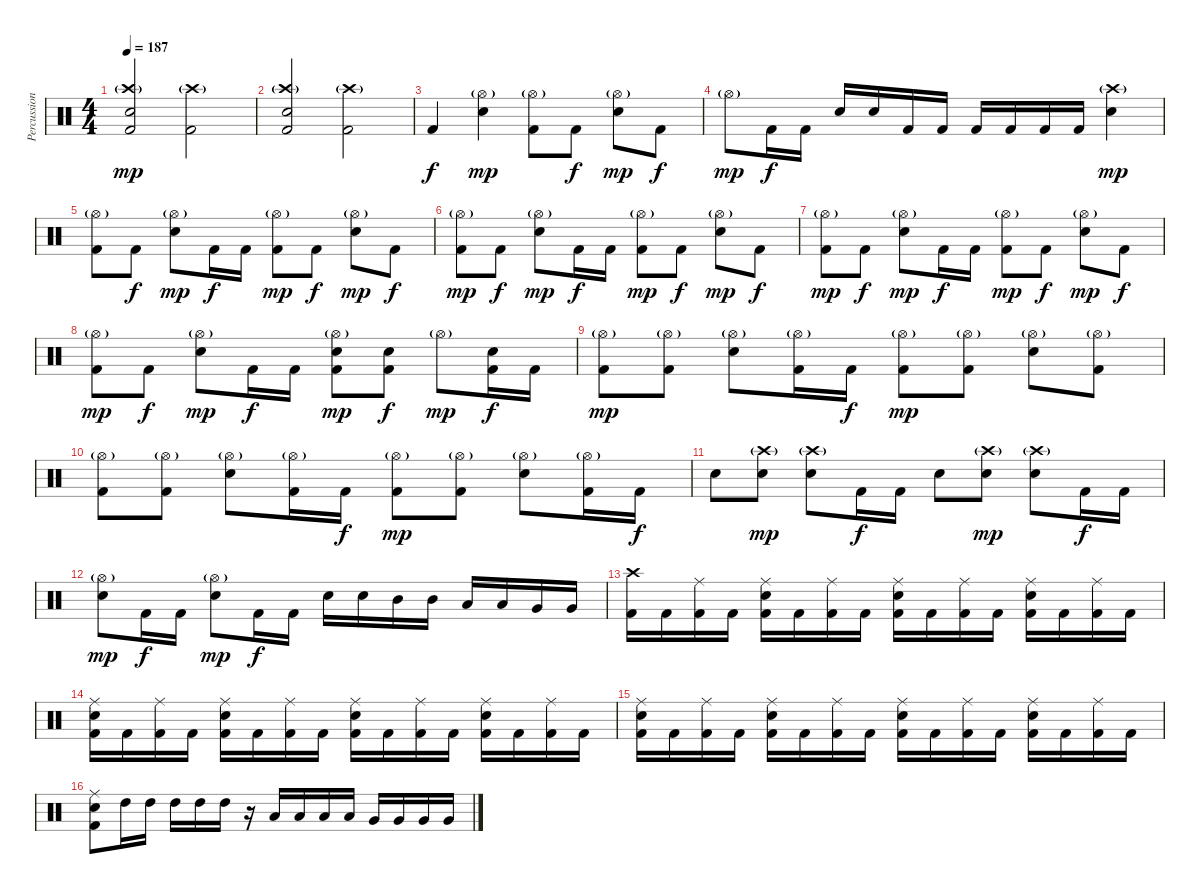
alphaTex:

\track ("Percussion" "Percussion") {instrument percussion}
\staff {score}
\articulation defaults
\ts (4 4)
\tempo 187
\clef neutral
\ks c
("Kick (hit) 2" "Crash high (hit)"{g} "Snare (hit) 2").2{dy mp} ("Kick (hit) 2" "Crash high (hit)"{g}).2 |
("Kick (hit) 2" "Crash high (hit)"{g} "Snare (hit) 2").2 ("Kick (hit) 2" "Crash high (hit)"{g}).2 |
"Kick (hit) 2".4{dy f} ("Snare (hit) 2" "Hi-Hat (open)"{g}).4{dy mp} ("Kick (hit) 2" "Hi-Hat (open)"{g}).8 "Kick (hit) 2".8{dy f} ("Snare (hit) 2" "Hi-Hat (open)"{g}).8{dy mp} "Kick (hit) 2".8{dy f} |
"Hi-Hat (open)"{g}.8{dy mp} "Kick (hit) 2".16{dy f} "Kick (hit) 2".16 "Snare (hit) 2".16 "Snare (hit) 2".16 "Kick (hit) 2".16 "Kick (hit) 2".16 "Kick (hit) 2".16 "Kick (hit) 2".16 "Kick (hit) 2".16 "Kick (hit) 2".16 ("Snare (hit) 2" "Crash high (hit)"{g}).4{dy mp} |
("Kick (hit) 2" "Hi-Hat (open)"{g}).8{volume 13} "Kick (hit) 2".8{dy f} ("Snare (hit) 2" "Hi-Hat (open)"{g}).8{dy mp} "Kick (hit) 2".16{dy f} "Kick (hit) 2".16 ("Kick (hit) 2" "Hi-Hat (open)"{g}).8{dy mp} "Kick (hit) 2".8{dy f} ("Snare (hit) 2" "Hi-Hat (open)"{g}).8{dy mp} "Kick (hit) 2".8{dy f} |
("Kick (hit) 2" "Hi-Hat (open)"{g}).8{dy mp} "Kick (hit) 2".8{dy f} ("Snare (hit) 2" "Hi-Hat (open)"{g}).8{dy mp} "Kick (hit) 2".16{dy f} "Kick (hit) 2".16 ("Kick (hit) 2" "Hi-Hat (open)"{g}).8{dy mp} "Kick (hit) 2".8{dy f} ("Snare (hit) 2" "Hi-Hat (open)"{g}).8{dy mp} "Kick (hit) 2".8{dy f} |
("Kick (hit) 2" "Hi-Hat (open)"{g}).8{dy mp} "Kick (hit) 2".8{dy f} ("Snare (hit) 2" "Hi-Hat (open)"{g}).8{dy mp} "Kick (hit) 2".16{dy f} "Kick (hit) 2".16 ("Kick (hit) 2" "Hi-Hat (open)"{g}).8{dy mp} "Kick (hit) 2".8{dy f} ("Snare (hit) 2" "Hi-Hat (open)"{g}).8{dy mp} "Kick (hit) 2".8{dy f} |
("Kick (hit) 2" "Hi-Hat (open)"{g}).8{dy mp} "Kick (hit) 2".8{dy f} ("Snare (hit) 2" "Hi-Hat (open)"{g}).8{dy mp} "Kick (hit) 2".16{dy f} "Kick (hit) 2".16 ("Kick (hit) 2" "Hi-Hat (open)"{g} "Snare (hit) 2").8{dy mp} ("Kick (hit) 2" "Snare (hit) 2").8{dy f} "Hi-Hat (open)"{g}.8{dy mp} ("Kick (hit) 2" "Snare (hit) 2").16{dy f} "Kick (hit) 2".16 |
("Kick (hit) 2" "Hi-Hat (open)"{g}).8{dy mp} ("Kick (hit) 2" "Hi-Hat (open)"{g}).8 ("Snare (hit) 2" "Hi-Hat (open)"{g}).8 ("Kick (hit) 2" "Hi-Hat (open)"{g}).16 "Kick (hit) 2".16{dy f} ("Kick (hit) 2" "Hi-Hat (open)"{g}).8{dy mp} ("Kick (hit) 2" "Hi-Hat (open)"{g}).8 ("Snare (hit) 2" "Hi-Hat (open)"{g}).8 ("Kick (hit) 2" "Hi-Hat (open)"{g}).8 |
("Kick (hit) 2" "Hi-Hat (open)"{g}).8 ("Kick (hit) 2" "Hi-Hat (open)"{g}).8 ("Snare (hit) 2" "Hi-Hat (open)"{g}).8 ("Kick (hit) 2" "Hi-Hat (open)"{g}).16 "Kick (hit) 2".16{dy f} ("Kick (hit) 2" "Hi-Hat (open)"{g}).8{dy mp} ("Kick (hit) 2" "Hi-Hat (open)"{g}).8 ("Snare (hit) 2" "Hi-Hat (open)"{g}).8 ("Kick (hit) 2" "Hi-Hat (open)"{g}).16 "Kick (hit) 2".16{dy f} |
"Snare (hit) 2".8 ("Crash high (hit)"{g} "Snare (hit) 2").8{dy mp} ("Crash high (hit)"{g} "Snare (hit) 2").8 "Kick (hit) 2".16{dy f} "Kick (hit) 2".16 "Snare (hit) 2".8 ("Crash high (hit)"{g} "Snare (hit) 2").8{dy mp} ("Crash high (hit)"{g} "Snare (hit) 2").8 "Kick (hit) 2".16{dy f} "Kick (hit) 2".16 |
("Snare (hit) 2" "Hi-Hat (open)"{g}).8{dy mp} "Kick (hit) 2".16{dy f} "Kick (hit) 2".16 ("Snare (hit) 2" "Hi-Hat (open)"{g}).8{dy mp} "Kick (hit) 2".16{dy f} "Kick (hit) 2".16 "Snare (hit) 2".16 "Snare (hit) 2".16 "Mid Tom (hit)".16 "Mid Tom (hit)".16 "Low Tom (hit)".16 "Low Tom (hit)".16 "Very Low Tom (hit)".16 "Very Low Tom (hit)".16 |
("Kick (hit) 2" "Crash high (hit)").16 "Kick (hit) 2".16 ("Kick (hit) 2" "Ride (middle)").16 "Kick (hit) 2".16 ("Kick (hit) 2" "Snare (hit) 2" "Ride (middle)").16 "Kick (hit) 2".16 ("Kick (hit) 2" "Ride (middle)").16 "Kick (hit) 2".16 ("Kick (hit) 2" "Snare (hit) 2" "Ride (middle)").16 "Kick (hit) 2".16 ("Kick (hit) 2" "Ride (middle)").16 "Kick (hit) 2".16 ("Kick (hit) 2" "Snare (hit) 2" "Ride (middle)").16 "Kick (hit) 2".16 ("Kick (hit) 2" "Ride (middle)").16 "Kick (hit) 2".16 |
("Kick (hit) 2" "Snare (hit) 2" "Ride (middle)").16 "Kick (hit) 2".16 ("Kick (hit) 2" "Ride (middle)").16 "Kick (hit) 2".16 ("Kick (hit) 2" "Snare (hit) 2" "Ride (middle)").16 "Kick (hit) 2".16 ("Kick (hit) 2" "Ride (middle)").16 "Kick (hit) 2".16 ("Kick (hit) 2" "Snare (hit) 2" "Ride (middle)").16 "Kick (hit) 2".16 ("Kick (hit) 2" "Ride (middle)").16 "Kick (hit) 2".16 ("Kick (hit) 2" "Snare (hit) 2" "Ride (middle)").16 "Kick (hit) 2".16 ("Kick (hit) 2" "Ride (middle)").16 "Kick (hit) 2".16 |
("Kick (hit) 2" "Snare (hit) 2" "Ride (middle)").16 "Kick (hit) 2".16 ("Kick (hit) 2" "Ride (middle)").16 "Kick (hit) 2".16 ("Kick (hit) 2" "Snare (hit) 2" "Ride (middle)").16 "Kick (hit) 2".16 ("Kick (hit) 2" "Ride (middle)").16 "Kick (hit) 2".16 ("Kick (hit) 2" "Snare (hit) 2" "Ride (middle)").16 "Kick (hit) 2".16 ("Kick (hit) 2" "Ride (middle)").16 "Kick (hit) 2".16 ("Kick (hit) 2" "Snare (hit) 2" "Ride (middle)").16 "Kick (hit) 2".16 ("Kick (hit) 2" "Ride (middle)").16 "Kick (hit) 2".16 |
("Kick (hit) 2" "Snare (hit) 2" "Ride (middle)").8 "High Tom (hit)".16 "High Tom (hit)".16 "High Tom (hit)".16 "High Tom (hit)".16 "High Tom (hit)".16 r.16 "Low Tom (hit)".16 "Low Tom (hit)".16 "Low Tom (hit)".16 "Low Tom (hit)".16 "Very Low Tom (hit)".16 "Very Low Tom (hit)".16 "Very Low Tom (hit)".16 "Very Low Tom (hit)".16
